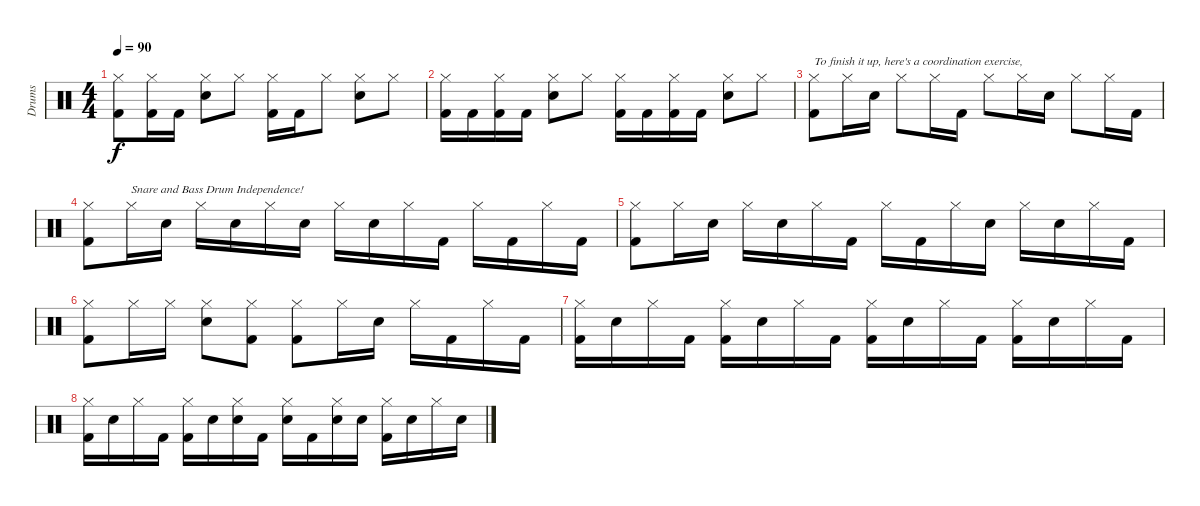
\track ("Drums" "Drums") {instrument percussion}
\staff {score}
\articulation defaults
\ts (4 4)
\tempo 90
\clef neutral
\ks c
("Hi-Hat (closed)" "Kick (hit) 2").8{dy f} ("Hi-Hat (closed)" "Kick (hit) 2").16 "Kick (hit) 2".16 ("Hi-Hat (closed)" "Electric Snare (hit)").8 "Hi-Hat (closed)".8 ("Hi-Hat (closed)" "Kick (hit) 2").16 "Kick (hit) 2".16 "Hi-Hat (closed)".8 ("Hi-Hat (closed)" "Electric Snare (hit)").8 "Hi-Hat (closed)".8 |
("Hi-Hat (closed)" "Kick (hit) 2").16 "Kick (hit) 2".16 ("Hi-Hat (closed)" "Kick (hit) 2").16 "Kick (hit) 2".16 ("Hi-Hat (closed)" "Electric Snare (hit)").8 "Hi-Hat (closed)".8 ("Hi-Hat (closed)" "Kick (hit) 2").16 "Kick (hit) 2".16 ("Hi-Hat (closed)" "Kick (hit) 2").16 "Kick (hit) 2".16 ("Hi-Hat (closed)" "Electric Snare (hit)").8 "Hi-Hat (closed)".8 |
("Hi-Hat (closed)" "Kick (hit) 2").8{txt "To finish it up, here's a coordination exercise,"} "Hi-Hat (closed)".16 "Electric Snare (hit)".16 "Hi-Hat (closed)".8 "Hi-Hat (closed)".16 "Kick (hit) 2".16 "Hi-Hat (closed)".8 "Hi-Hat (closed)".16 "Electric Snare (hit)".16 "Hi-Hat (closed)".8 "Hi-Hat (closed)".16 "Kick (hit) 2".16 |
("Hi-Hat (closed)" "Kick (hit) 2").8 "Hi-Hat (closed)".16{txt "Snare and Bass Drum Independence!"} "Electric Snare (hit)".16 "Hi-Hat (closed)".16 "Electric Snare (hit)".16 "Hi-Hat (closed)".16 "Electric Snare (hit)".16 "Hi-Hat (closed)".16 "Electric Snare (hit)".16 "Hi-Hat (closed)".16 "Kick (hit) 2".16 "Hi-Hat (closed)".16 "Kick (hit) 2".16 "Hi-Hat (closed)".16 "Kick (hit) 2".16 |
("Hi-Hat (closed)" "Kick (hit) 2").8 "Hi-Hat (closed)".16 "Electric Snare (hit)".16 "Hi-Hat (closed)".16 "Electric Snare (hit)".16 "Hi-Hat (closed)".16 "Kick (hit) 2".16 "Hi-Hat (closed)".16 "Kick (hit) 2".16 "Hi-Hat (closed)".16 "Electric Snare (hit)".16 "Hi-Hat (closed)".16 "Electric Snare (hit)".16 "Hi-Hat (closed)".16 "Kick (hit) 2".16 |
("Hi-Hat (closed)" "Kick (hit) 2").8 "Hi-Hat (closed)".16 "Hi-Hat (closed)".16 ("Hi-Hat (closed)" "Electric Snare (hit)").8 ("Hi-Hat (closed)" "Kick (hit) 2").8 ("Hi-Hat (closed)" "Kick (hit) 2").8 "Hi-Hat (closed)".16 "Electric Snare (hit)".16 "Hi-Hat (closed)".16 "Kick (hit) 2".16 "Hi-Hat (closed)".16 "Kick (hit) 2".16 |
("Hi-Hat (closed)" "Kick (hit) 2").16 "Electric Snare (hit)".16 "Hi-Hat (closed)".16 "Kick (hit) 2".16 ("Hi-Hat (closed)" "Kick (hit) 2").16 "Electric Snare (hit)".16 "Hi-Hat (closed)".16 "Kick (hit) 2".16 ("Hi-Hat (closed)" "Kick (hit) 2").16 "Electric Snare (hit)".16 "Hi-Hat (closed)".16 "Kick (hit) 2".16 ("Hi-Hat (closed)" "Kick (hit) 2").16 "Electric Snare (hit)".16 "Hi-Hat (closed)".16 "Kick (hit) 2".16 |
("Hi-Hat (closed)" "Kick (hit) 2").16 "Electric Snare (hit)".16 "Hi-Hat (closed)".16 "Kick (hit) 2".16 ("Hi-Hat (closed)" "Kick (hit) 2").16 "Electric Snare (hit)".16 ("Hi-Hat (closed)" "Electric Snare (hit)").16 "Kick (hit) 2".16 ("Hi-Hat (closed)" "Electric Snare (hit)").16 "Kick (hit) 2".16 ("Hi-Hat (closed)" "Electric Snare (hit)").16 "Electric Snare (hit)".16 ("Hi-Hat (closed)" "Kick (hit) 2").16 "Electric Snare (hit)".16 "Hi-Hat (closed)".16 "Electric Snare (hit)".16
